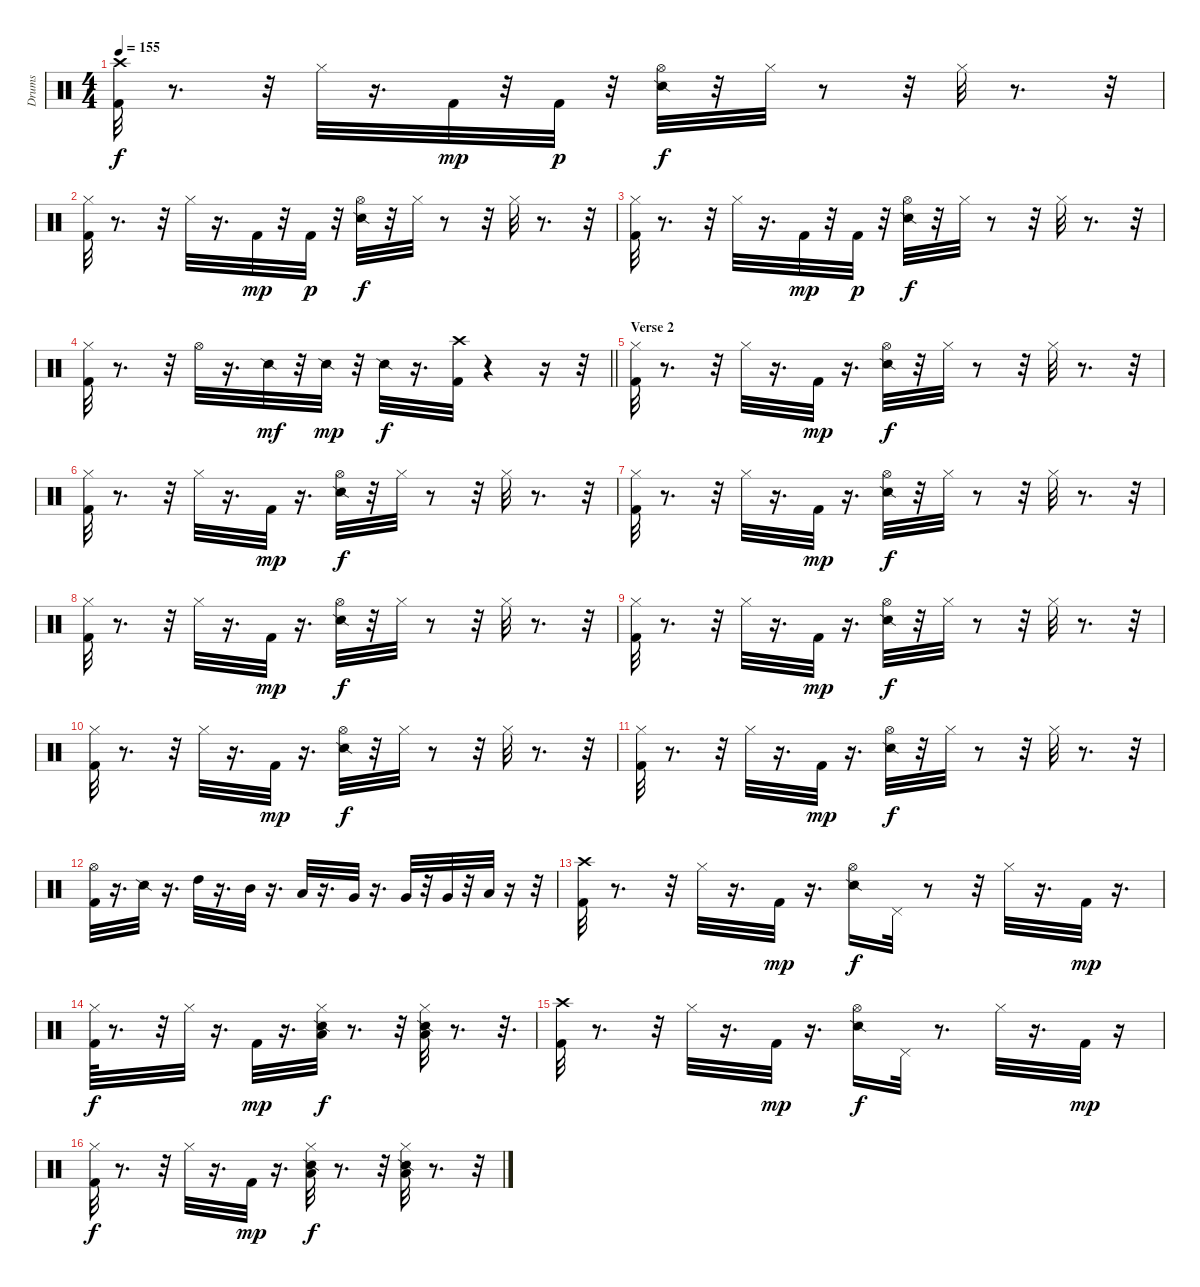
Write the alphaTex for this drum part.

\track ("Drums" "Drums") {instrument percussion}
\staff {score}
\articulation defaults
\ts (4 4)
\tempo 155
\clef neutral
\ks c
("Crash high (hit)" "Kick (hit) 2").32{dy f} r.8{d} r.32 "Hi-Hat (closed)".32 r.16{d} "Kick (hit) 2".32{dy mp} r.32 "Kick (hit) 2".32{dy p} r.32 ("Hi-Hat (open)" "Snare (side stick) 2").32{dy f} r.32 "Hi-Hat (closed)".32 r.8 r.32 "Hi-Hat (closed)".32 r.8{d} r.32 |
("Hi-Hat (closed)" "Kick (hit) 2").32 r.8{d} r.32 "Hi-Hat (closed)".32 r.16{d} "Kick (hit) 2".32{dy mp} r.32 "Kick (hit) 2".32{dy p} r.32 ("Hi-Hat (open)" "Snare (side stick) 2").32{dy f} r.32 "Hi-Hat (closed)".32 r.8 r.32 "Hi-Hat (closed)".32 r.8{d} r.32 |
("Hi-Hat (closed)" "Kick (hit) 2").32 r.8{d} r.32 "Hi-Hat (closed)".32 r.16{d} "Kick (hit) 2".32{dy mp} r.32 "Kick (hit) 2".32{dy p} r.32 ("Hi-Hat (open)" "Snare (side stick) 2").32{dy f} r.32 "Hi-Hat (closed)".32 r.8 r.32 "Hi-Hat (closed)".32 r.8{d} r.32 |
\barLineRight lightlight
("Kick (hit) 2" "Hi-Hat (closed)").32 r.8{d} r.32 "Hi-Hat (open)".32 r.16{d} "Snare (side stick) 2".32{dy mf} r.32 "Snare (side stick) 2".32{dy mp} r.32 "Snare (side stick) 2".32{dy f} r.16{d} ("Crash high (hit)" "Kick (hit) 2").32 r.4 r.16 r.32 |
\section ("" "Verse 2")
("Hi-Hat (closed)" "Kick (hit) 2").32 r.8{d} r.32 "Hi-Hat (closed)".32 r.16{d} "Kick (hit) 2".32{dy mp} r.16{d} ("Hi-Hat (open)" "Snare (side stick) 2").32{dy f} r.32 "Hi-Hat (closed)".32 r.8 r.32 "Hi-Hat (closed)".32 r.8{d} r.32 |
("Hi-Hat (closed)" "Kick (hit) 2").32 r.8{d} r.32 "Hi-Hat (closed)".32 r.16{d} "Kick (hit) 2".32{dy mp} r.16{d} ("Hi-Hat (open)" "Snare (side stick) 2").32{dy f} r.32 "Hi-Hat (closed)".32 r.8 r.32 "Hi-Hat (closed)".32 r.8{d} r.32 |
("Hi-Hat (closed)" "Kick (hit) 2").32 r.8{d} r.32 "Hi-Hat (closed)".32 r.16{d} "Kick (hit) 2".32{dy mp} r.16{d} ("Hi-Hat (open)" "Snare (side stick) 2").32{dy f} r.32 "Hi-Hat (closed)".32 r.8 r.32 "Hi-Hat (closed)".32 r.8{d} r.32 |
("Hi-Hat (closed)" "Kick (hit) 2").32 r.8{d} r.32 "Hi-Hat (closed)".32 r.16{d} "Kick (hit) 2".32{dy mp} r.16{d} ("Hi-Hat (open)" "Snare (side stick) 2").32{dy f} r.32 "Hi-Hat (closed)".32 r.8 r.32 "Hi-Hat (closed)".32 r.8{d} r.32 |
("Hi-Hat (closed)" "Kick (hit) 2").32 r.8{d} r.32 "Hi-Hat (closed)".32 r.16{d} "Kick (hit) 2".32{dy mp} r.16{d} ("Hi-Hat (open)" "Snare (side stick) 2").32{dy f} r.32 "Hi-Hat (closed)".32 r.8 r.32 "Hi-Hat (closed)".32 r.8{d} r.32 |
("Hi-Hat (closed)" "Kick (hit) 2").32 r.8{d} r.32 "Hi-Hat (closed)".32 r.16{d} "Kick (hit) 2".32{dy mp} r.16{d} ("Hi-Hat (open)" "Snare (side stick) 2").32{dy f} r.32 "Hi-Hat (closed)".32 r.8 r.32 "Hi-Hat (closed)".32 r.8{d} r.32 |
("Hi-Hat (closed)" "Kick (hit) 2").32 r.8{d} r.32 "Hi-Hat (closed)".32 r.16{d} "Kick (hit) 2".32{dy mp} r.16{d} ("Hi-Hat (open)" "Snare (side stick) 2").32{dy f} r.32 "Hi-Hat (closed)".32 r.8 r.32 "Hi-Hat (closed)".32 r.8{d} r.32 |
("Kick (hit) 2" "Hi-Hat (open)").32 r.16{d} "Snare (side stick) 2".32 r.16{d} "High Tom (hit)".32 r.16{d} "Mid Tom (hit)".32 r.16{d} "Low Tom (hit)".32 r.16{d} "Very Low Tom (hit)".32 r.16{d} "Very Low Tom (hit)".32 r.32 "Very Low Tom (hit)".32 r.32 "Low Floor Tom (hit)".32 r.16 r.32 |
("Crash high (hit)" "Kick (hit) 2").32 r.8{d} r.32 "Hi-Hat (closed)".32 r.16{d} "Kick (hit) 2".32{dy mp} r.16{d} ("Hi-Hat (open)" "Snare (side stick) 2").16{dy f} "Pedal Hi-Hat (hit)".32 r.8 r.32 "Hi-Hat (closed)".32 r.16{d} "Kick (hit) 2".32{dy mp} r.16{d} |
("Hi-Hat (closed)" "Kick (hit) 2").64{dy f} r.8{d} r.32 "Hi-Hat (closed)".32 r.16{d} "Kick (hit) 2".32{dy mp} r.16{d} ("Hi-Hat (closed)" "Low Tom (hit)" "Snare (side stick) 2").32{dy f} r.8{d} r.32 ("Hi-Hat (closed)" "Snare (side stick) 2" "Low Floor Tom (hit)").32 r.8{d} r.32{d} |
("Crash high (hit)" "Kick (hit) 2").32 r.8{d} r.32 "Hi-Hat (closed)".32 r.16{d} "Kick (hit) 2".32{dy mp} r.16{d} ("Hi-Hat (open)" "Snare (side stick) 2").16{dy f} "Pedal Hi-Hat (hit)".32 r.8{d} "Hi-Hat (closed)".32 r.16{d} "Kick (hit) 2".32{dy mp} r.16 |
("Hi-Hat (closed)" "Kick (hit) 2").32{dy f} r.8{d} r.32 "Hi-Hat (closed)".32 r.16{d} "Kick (hit) 2".32{dy mp} r.16{d} ("Hi-Hat (closed)" "Low Tom (hit)" "Snare (side stick) 2").32{dy f} r.8{d} r.32 ("Hi-Hat (closed)" "Snare (side stick) 2" "Low Floor Tom (hit)").32 r.8{d} r.32
